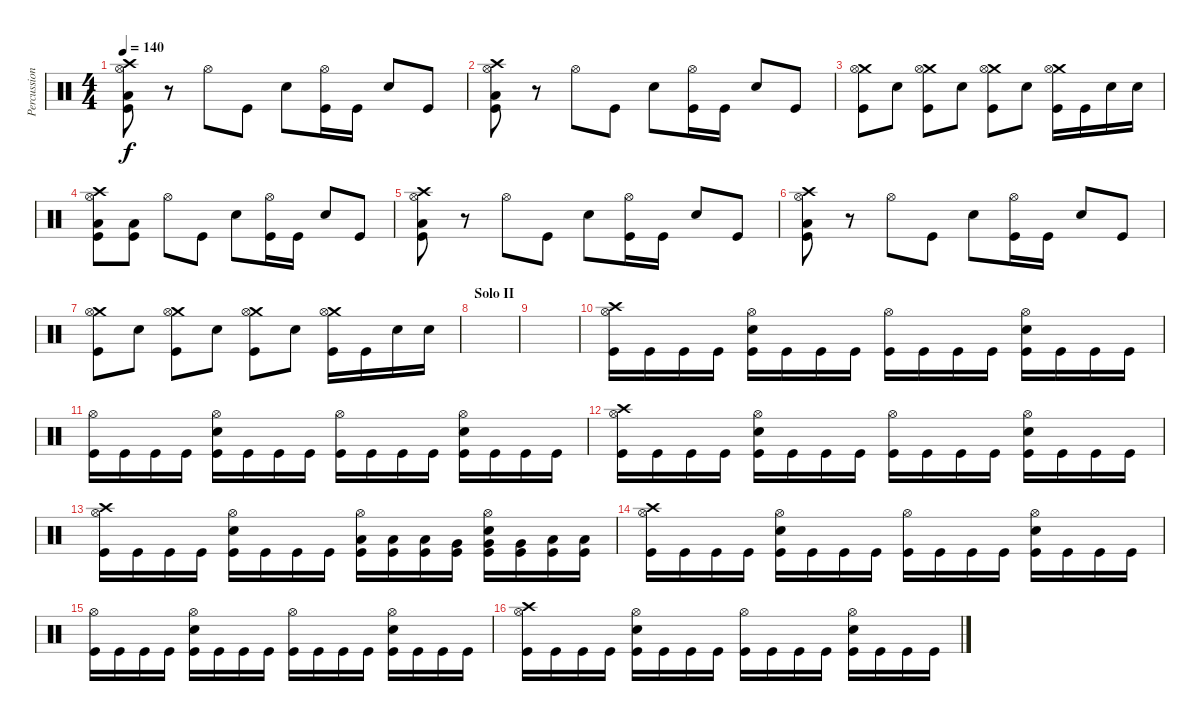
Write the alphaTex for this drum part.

\track ("Percussion" "Percussion") {instrument percussion}
\staff {score}
\articulation defaults
\ts (4 4)
\tempo 140
\clef neutral
\ks c
("Crash high (hit)" "Hi-Hat (open)" "Low Floor Tom (hit)" "Kick (hit)").8{dy f} r.8 "Hi-Hat (open)".8 "Kick (hit)".8 "Electric Snare (hit)".8 ("Hi-Hat (open)" "Kick (hit)").16 "Kick (hit)".16 "Electric Snare (hit)".8 "Kick (hit)".8 |
("Crash high (hit)" "Hi-Hat (open)" "Low Floor Tom (hit)" "Kick (hit)").8 r.8 "Hi-Hat (open)".8 "Kick (hit)".8 "Electric Snare (hit)".8 ("Hi-Hat (open)" "Kick (hit)").16 "Kick (hit)".16 "Electric Snare (hit)".8 "Kick (hit)".8 |
("Crash medium (hit)" "Hi-Hat (open)" "Kick (hit)").8 "Electric Snare (hit)".8 ("Crash medium (hit)" "Hi-Hat (open)" "Kick (hit)").8 "Electric Snare (hit)".8 ("Crash medium (hit)" "Hi-Hat (open)" "Kick (hit)").8 "Electric Snare (hit)".8 ("Crash medium (hit)" "Hi-Hat (open)" "Kick (hit)").16 "Kick (hit)".16 "Electric Snare (hit)".16 "Electric Snare (hit)".16 |
("Crash high (hit)" "Hi-Hat (open)" "Low Floor Tom (hit)" "Kick (hit)").8 ("Low Floor Tom (hit)" "Kick (hit)").8 "Hi-Hat (open)".8 "Kick (hit)".8 "Electric Snare (hit)".8 ("Hi-Hat (open)" "Kick (hit)").16 "Kick (hit)".16 "Electric Snare (hit)".8 "Kick (hit)".8 |
("Crash high (hit)" "Hi-Hat (open)" "Low Floor Tom (hit)" "Kick (hit)").8 r.8 "Hi-Hat (open)".8 "Kick (hit)".8 "Electric Snare (hit)".8 ("Hi-Hat (open)" "Kick (hit)").16 "Kick (hit)".16 "Electric Snare (hit)".8 "Kick (hit)".8 |
("Crash high (hit)" "Hi-Hat (open)" "Low Floor Tom (hit)" "Kick (hit)").8 r.8 "Hi-Hat (open)".8 "Kick (hit)".8 "Electric Snare (hit)".8 ("Hi-Hat (open)" "Kick (hit)").16 "Kick (hit)".16 "Electric Snare (hit)".8 "Kick (hit)".8 |
("Crash medium (hit)" "Hi-Hat (open)" "Kick (hit)").8 "Electric Snare (hit)".8 ("Crash medium (hit)" "Hi-Hat (open)" "Kick (hit)").8 "Electric Snare (hit)".8 ("Crash medium (hit)" "Hi-Hat (open)" "Kick (hit)").8 "Electric Snare (hit)".8 ("Crash medium (hit)" "Hi-Hat (open)" "Kick (hit)").16 "Kick (hit)".16 "Electric Snare (hit)".16 "Electric Snare (hit)".16 |
\section ("" "Solo II")
|
|
("Crash high (hit)" "Hi-Hat (open)" "Kick (hit)").16 "Kick (hit)".16 "Kick (hit)".16 "Kick (hit)".16 ("Hi-Hat (open)" "Electric Snare (hit)" "Kick (hit)").16 "Kick (hit)".16 "Kick (hit)".16 "Kick (hit)".16 ("Hi-Hat (open)" "Kick (hit)").16 "Kick (hit)".16 "Kick (hit)".16 "Kick (hit)".16 ("Hi-Hat (open)" "Electric Snare (hit)" "Kick (hit)").16 "Kick (hit)".16 "Kick (hit)".16 "Kick (hit)".16 |
("Hi-Hat (open)" "Kick (hit)").16 "Kick (hit)".16 "Kick (hit)".16 "Kick (hit)".16 ("Hi-Hat (open)" "Electric Snare (hit)" "Kick (hit)").16 "Kick (hit)".16 "Kick (hit)".16 "Kick (hit)".16 ("Hi-Hat (open)" "Kick (hit)").16 "Kick (hit)".16 "Kick (hit)".16 "Kick (hit)".16 ("Hi-Hat (open)" "Electric Snare (hit)" "Kick (hit)").16 "Kick (hit)".16 "Kick (hit)".16 "Kick (hit)".16 |
("Crash high (hit)" "Hi-Hat (open)" "Kick (hit)").16 "Kick (hit)".16 "Kick (hit)".16 "Kick (hit)".16 ("Hi-Hat (open)" "Electric Snare (hit)" "Kick (hit)").16 "Kick (hit)".16 "Kick (hit)".16 "Kick (hit)".16 ("Hi-Hat (open)" "Kick (hit)").16 "Kick (hit)".16 "Kick (hit)".16 "Kick (hit)".16 ("Hi-Hat (open)" "Electric Snare (hit)" "Kick (hit)").16 "Kick (hit)".16 "Kick (hit)".16 "Kick (hit)".16 |
("Crash high (hit)" "Hi-Hat (open)" "Kick (hit)").16 "Kick (hit)".16 "Kick (hit)".16 "Kick (hit)".16 ("Hi-Hat (open)" "Electric Snare (hit)" "Kick (hit)").16 "Kick (hit)".16 "Kick (hit)".16 "Kick (hit)".16 ("Low Tom (hit)" "Hi-Hat (open)" "Kick (hit)").16 ("Low Tom (hit)" "Kick (hit)").16 ("Low Tom (hit)" "Kick (hit)").16 ("Very Low Tom (hit)" "Kick (hit)").16 ("Very Low Tom (hit)" "Hi-Hat (open)" "Electric Snare (hit)" "Kick (hit)").16 ("Very Low Tom (hit)" "Kick (hit)").16 ("Low Floor Tom (hit)" "Kick (hit)").16 ("Low Floor Tom (hit)" "Kick (hit)").16 |
("Crash high (hit)" "Hi-Hat (open)" "Kick (hit)").16 "Kick (hit)".16 "Kick (hit)".16 "Kick (hit)".16 ("Hi-Hat (open)" "Electric Snare (hit)" "Kick (hit)").16 "Kick (hit)".16 "Kick (hit)".16 "Kick (hit)".16 ("Hi-Hat (open)" "Kick (hit)").16 "Kick (hit)".16 "Kick (hit)".16 "Kick (hit)".16 ("Hi-Hat (open)" "Electric Snare (hit)" "Kick (hit)").16 "Kick (hit)".16 "Kick (hit)".16 "Kick (hit)".16 |
("Hi-Hat (open)" "Kick (hit)").16 "Kick (hit)".16 "Kick (hit)".16 "Kick (hit)".16 ("Hi-Hat (open)" "Electric Snare (hit)" "Kick (hit)").16 "Kick (hit)".16 "Kick (hit)".16 "Kick (hit)".16 ("Hi-Hat (open)" "Kick (hit)").16 "Kick (hit)".16 "Kick (hit)".16 "Kick (hit)".16 ("Hi-Hat (open)" "Electric Snare (hit)" "Kick (hit)").16 "Kick (hit)".16 "Kick (hit)".16 "Kick (hit)".16 |
("Crash high (hit)" "Hi-Hat (open)" "Kick (hit)").16 "Kick (hit)".16 "Kick (hit)".16 "Kick (hit)".16 ("Hi-Hat (open)" "Electric Snare (hit)" "Kick (hit)").16 "Kick (hit)".16 "Kick (hit)".16 "Kick (hit)".16 ("Hi-Hat (open)" "Kick (hit)").16 "Kick (hit)".16 "Kick (hit)".16 "Kick (hit)".16 ("Hi-Hat (open)" "Electric Snare (hit)" "Kick (hit)").16 "Kick (hit)".16 "Kick (hit)".16 "Kick (hit)".16
